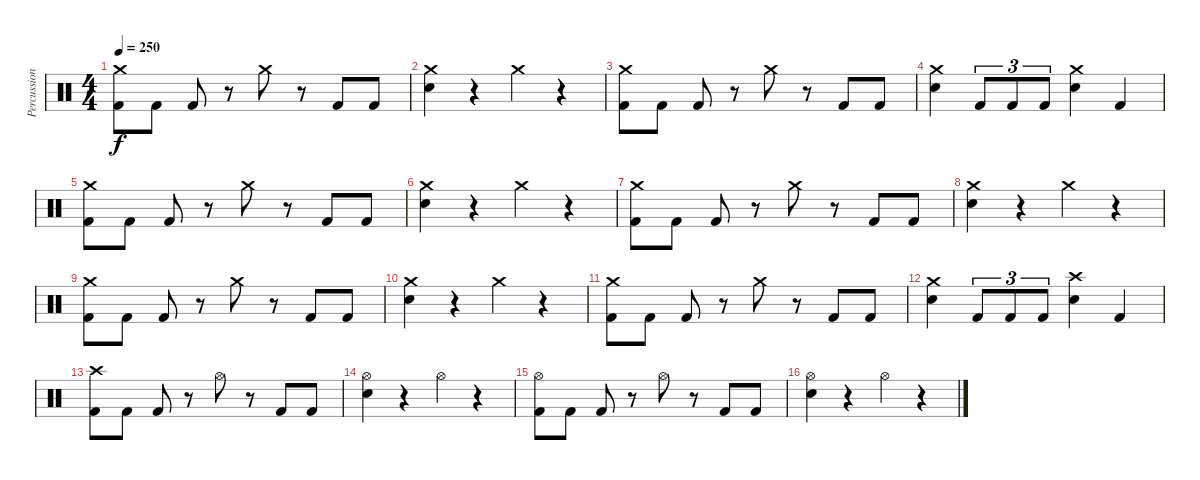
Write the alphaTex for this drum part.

\track ("Percussion" "Percussion") {instrument percussion}
\staff {score}
\articulation defaults
\ts (4 4)
\tempo 250
\clef neutral
\ks c
("Crash medium (hit)" "Kick (hit) 2").8{dy f} "Kick (hit) 2".8 "Kick (hit) 2".8 r.8 "Crash medium (hit)".8 r.8 "Kick (hit) 2".8 "Kick (hit) 2".8 |
("Crash medium (hit)" "Electric Snare (hit)").4 r.4 "Crash medium (hit)".4 r.4 |
("Crash medium (hit)" "Kick (hit) 2").8 "Kick (hit) 2".8 "Kick (hit) 2".8 r.8 "Crash medium (hit)".8 r.8 "Kick (hit) 2".8 "Kick (hit) 2".8 |
("Crash medium (hit)" "Electric Snare (hit)").4 "Kick (hit) 2".8{tu (3 2)} "Kick (hit) 2".8{tu (3 2)} "Kick (hit) 2".8{tu (3 2)} ("Crash medium (hit)" "Electric Snare (hit)").4 "Kick (hit) 2".4 |
("Crash medium (hit)" "Kick (hit) 2").8 "Kick (hit) 2".8 "Kick (hit) 2".8 r.8 "Crash medium (hit)".8 r.8 "Kick (hit) 2".8 "Kick (hit) 2".8 |
("Crash medium (hit)" "Electric Snare (hit)").4 r.4 "Crash medium (hit)".4 r.4 |
("Crash medium (hit)" "Kick (hit) 2").8 "Kick (hit) 2".8 "Kick (hit) 2".8 r.8 "Crash medium (hit)".8 r.8 "Kick (hit) 2".8 "Kick (hit) 2".8 |
("Crash medium (hit)" "Electric Snare (hit)").4 r.4 "Crash medium (hit)".4 r.4 |
("Crash medium (hit)" "Kick (hit) 2").8 "Kick (hit) 2".8 "Kick (hit) 2".8 r.8 "Crash medium (hit)".8 r.8 "Kick (hit) 2".8 "Kick (hit) 2".8 |
("Crash medium (hit)" "Electric Snare (hit)").4 r.4 "Crash medium (hit)".4 r.4 |
("Crash medium (hit)" "Kick (hit) 2").8 "Kick (hit) 2".8 "Kick (hit) 2".8 r.8 "Crash medium (hit)".8 r.8 "Kick (hit) 2".8 "Kick (hit) 2".8 |
("Crash medium (hit)" "Electric Snare (hit)").4 "Kick (hit) 2".8{tu (3 2)} "Kick (hit) 2".8{tu (3 2)} "Kick (hit) 2".8{tu (3 2)} ("Crash high (hit)" "Electric Snare (hit)").4 "Kick (hit) 2".4 |
("Crash high (hit)" "Kick (hit) 2").8 "Kick (hit) 2".8 "Kick (hit) 2".8 r.8 "Hi-Hat (open)".8 r.8 "Kick (hit) 2".8 "Kick (hit) 2".8 |
("Hi-Hat (open)" "Electric Snare (hit)").4 r.4 "Hi-Hat (open)".4 r.4 |
("Hi-Hat (open)" "Kick (hit) 2").8 "Kick (hit) 2".8 "Kick (hit) 2".8 r.8 "Hi-Hat (open)".8 r.8 "Kick (hit) 2".8 "Kick (hit) 2".8 |
("Hi-Hat (open)" "Electric Snare (hit)").4 r.4 "Hi-Hat (open)".4 r.4
